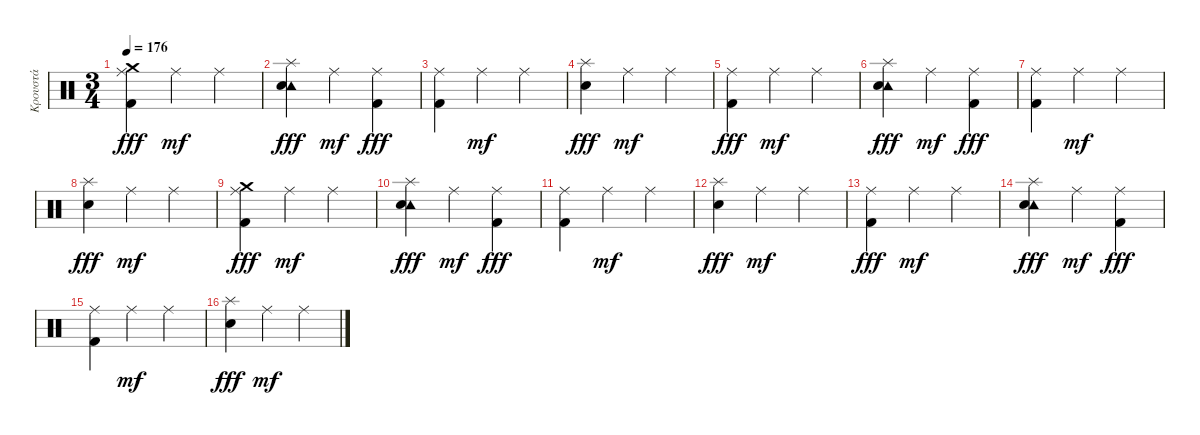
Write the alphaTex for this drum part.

\track ("Κρουστά" "Κρουστά") {instrument percussion}
\staff {score}
\articulation defaults
\ts (3 4)
\tempo 176
\clef neutral
\ks c
("Crash medium (hit)" "Ride (middle)" "Kick (hit) 2").4{dy fff} "Ride (middle)".4{dy mf} "Ride (middle)".4 |
("Splash (hit)" "Tambourine (hit)" "Snare (hit) 2").4{dy fff} "Ride (middle)".4{dy mf} ("Ride (middle)" "Kick (hit) 2").4{dy fff} |
("Ride (middle)" "Kick (hit) 2").4 "Ride (middle)".4{dy mf} "Ride (middle)".4 |
("Splash (hit)" "Snare (hit) 2").4{dy fff} "Ride (middle)".4{dy mf} "Ride (middle)".4 |
("Ride (middle)" "Kick (hit) 2").4{dy fff} "Ride (middle)".4{dy mf} "Ride (middle)".4 |
("Splash (hit)" "Tambourine (hit)" "Snare (hit) 2").4{dy fff} "Ride (middle)".4{dy mf} ("Ride (middle)" "Kick (hit) 2").4{dy fff} |
("Ride (middle)" "Kick (hit) 2").4 "Ride (middle)".4{dy mf} "Ride (middle)".4 |
("Splash (hit)" "Snare (hit) 2").4{dy fff} "Ride (middle)".4{dy mf} "Ride (middle)".4 |
("Crash medium (hit)" "Ride (middle)" "Kick (hit) 2").4{dy fff} "Ride (middle)".4{dy mf} "Ride (middle)".4 |
("Splash (hit)" "Tambourine (hit)" "Snare (hit) 2").4{dy fff} "Ride (middle)".4{dy mf} ("Ride (middle)" "Kick (hit) 2").4{dy fff} |
("Ride (middle)" "Kick (hit) 2").4 "Ride (middle)".4{dy mf} "Ride (middle)".4 |
("Splash (hit)" "Snare (hit) 2").4{dy fff} "Ride (middle)".4{dy mf} "Ride (middle)".4 |
("Ride (middle)" "Kick (hit) 2").4{dy fff} "Ride (middle)".4{dy mf} "Ride (middle)".4 |
("Splash (hit)" "Tambourine (hit)" "Snare (hit) 2").4{dy fff} "Ride (middle)".4{dy mf} ("Ride (middle)" "Kick (hit) 2").4{dy fff} |
("Ride (middle)" "Kick (hit) 2").4 "Ride (middle)".4{dy mf} "Ride (middle)".4 |
("Splash (hit)" "Snare (hit) 2").4{dy fff} "Ride (middle)".4{dy mf} "Ride (middle)".4
